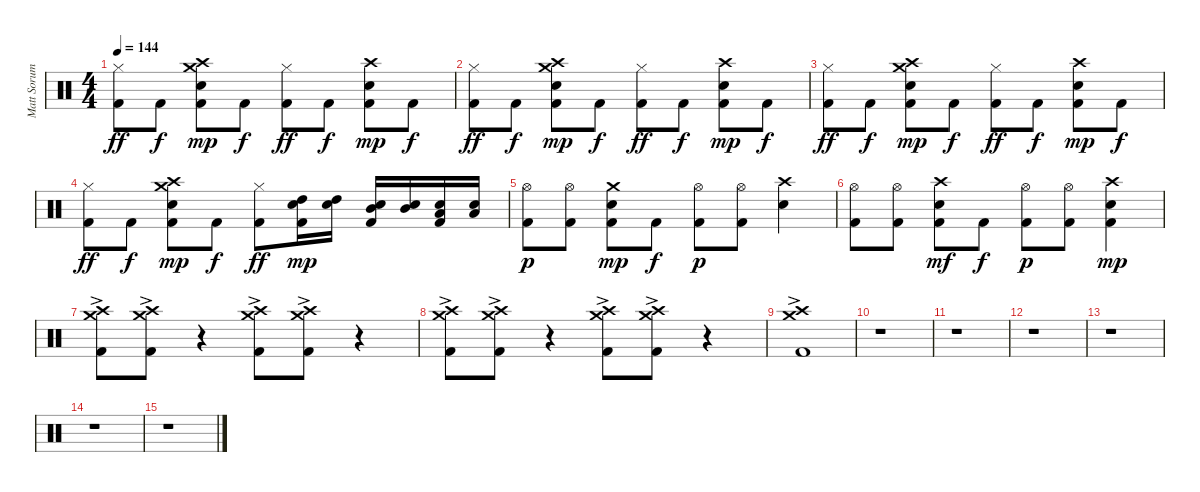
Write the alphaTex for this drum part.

\track ("Matt Sorum" "Matt Sorum") {instrument percussion}
\staff {score}
\articulation defaults
\ts (4 4)
\tempo 144
\clef neutral
\ks c
("Kick (hit) 2" "Hi-Hat (closed)").8{dy ff} "Kick (hit) 2".8{dy f} ("Kick (hit) 2" "Snare (hit) 2" "Crash medium (hit)" "Crash high (hit)").8{dy mp} "Kick (hit) 2".8{dy f} ("Kick (hit) 2" "Hi-Hat (closed)").8{dy ff} "Kick (hit) 2".8{dy f} ("Kick (hit) 2" "Snare (hit) 2" "Crash high (hit)").8{dy mp} "Kick (hit) 2".8{dy f} |
("Kick (hit) 2" "Hi-Hat (closed)").8{dy ff} "Kick (hit) 2".8{dy f} ("Kick (hit) 2" "Snare (hit) 2" "Crash medium (hit)" "Crash high (hit)").8{dy mp} "Kick (hit) 2".8{dy f} ("Kick (hit) 2" "Hi-Hat (closed)").8{dy ff} "Kick (hit) 2".8{dy f} ("Kick (hit) 2" "Snare (hit) 2" "Crash high (hit)").8{dy mp} "Kick (hit) 2".8{dy f} |
("Kick (hit) 2" "Hi-Hat (closed)").8{dy ff} "Kick (hit) 2".8{dy f} ("Kick (hit) 2" "Snare (hit) 2" "Crash medium (hit)" "Crash high (hit)").8{dy mp} "Kick (hit) 2".8{dy f} ("Kick (hit) 2" "Hi-Hat (closed)").8{dy ff} "Kick (hit) 2".8{dy f} ("Kick (hit) 2" "Snare (hit) 2" "Crash high (hit)").8{dy mp} "Kick (hit) 2".8{dy f} |
("Kick (hit) 2" "Hi-Hat (closed)").8{dy ff} "Kick (hit) 2".8{dy f} ("Kick (hit) 2" "Snare (hit) 2" "Crash medium (hit)" "Crash high (hit)").8{dy mp} "Kick (hit) 2".8{dy f} ("Kick (hit) 2" "Hi-Hat (closed)").8{dy ff} ("Kick (hit) 2" "Snare (hit) 2" "High Tom (hit)").16{dy mp} ("Snare (hit) 2" "High Tom (hit)").16 ("Kick (hit) 2" "Snare (hit) 2" "Mid Tom (hit)").16 ("Snare (hit) 2" "Mid Tom (hit)").16 ("Kick (hit) 2" "Snare (hit) 2" "Low Tom (hit)").16 ("Snare (hit) 2" "Low Tom (hit)").16 |
("Kick (hit) 2" "Hi-Hat (open)").8{dy p} ("Kick (hit) 2" "Hi-Hat (open)").8 ("Kick (hit) 2" "Snare (hit) 2" "Crash medium (hit)").8{dy mp} "Kick (hit) 2".8{dy f} ("Kick (hit) 2" "Hi-Hat (open)").8{dy p} ("Kick (hit) 2" "Hi-Hat (open)").8 ("Snare (hit) 2" "Crash high (hit)").4 |
("Kick (hit) 2" "Hi-Hat (open)").8 ("Kick (hit) 2" "Hi-Hat (open)").8 ("Kick (hit) 2" "Snare (hit) 2" "Crash high (hit)").8{dy mf} "Kick (hit) 2".8{dy f} ("Kick (hit) 2" "Hi-Hat (open)").8{dy p} ("Kick (hit) 2" "Hi-Hat (open)").8 ("Kick (hit) 2" "Snare (hit) 2" "Crash high (hit)").4{dy mp} |
("Kick (hit) 2"{ac} "Crash medium (hit)" "Crash high (hit)").8 ("Kick (hit) 2"{ac} "Crash medium (hit)" "Crash high (hit)").8 r.4 ("Kick (hit) 2"{ac} "Crash medium (hit)" "Crash high (hit)").8 ("Kick (hit) 2"{ac} "Crash medium (hit)" "Crash high (hit)").8 r.4 |
("Kick (hit) 2"{ac} "Crash medium (hit)" "Crash high (hit)").8 ("Kick (hit) 2"{ac} "Crash medium (hit)" "Crash high (hit)").8 r.4 ("Kick (hit) 2"{ac} "Crash medium (hit)" "Crash high (hit)").8 ("Kick (hit) 2"{ac} "Crash medium (hit)" "Crash high (hit)").8 r.4 |
("Kick (hit) 2"{ac} "Crash medium (hit)" "Crash high (hit)").1 |
r.1 |
r.1 |
r.1 |
r.1 |
r.1 |
r.1
